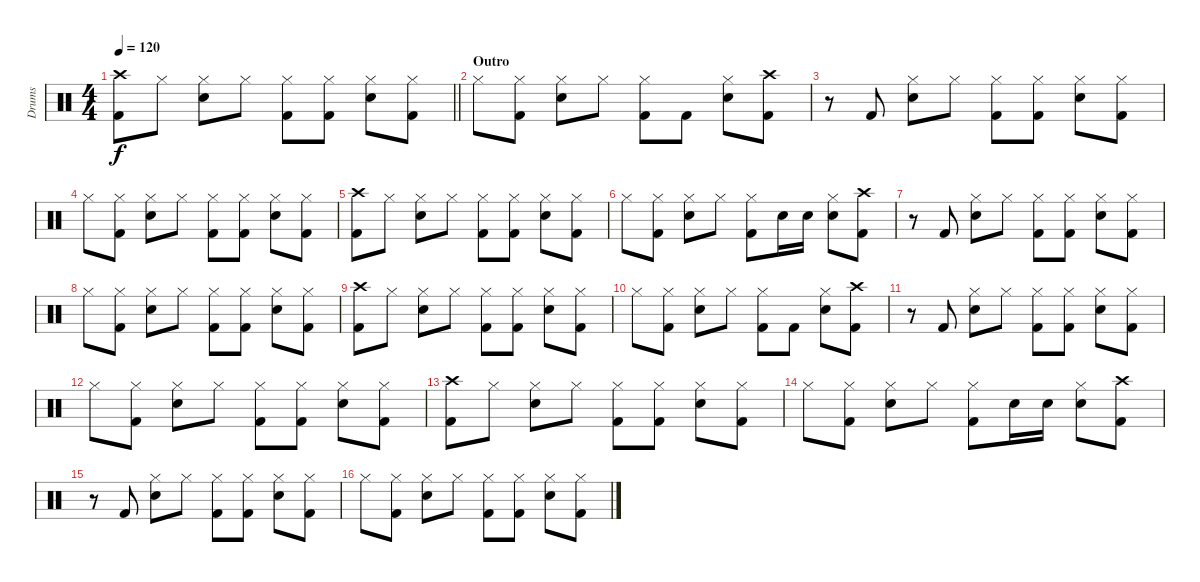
\track ("Drums" "Drums") {instrument percussion}
\staff {score}
\articulation defaults
\ts (4 4)
\tempo 120
\clef neutral
\barLineRight lightlight
\ks c
("Crash high (hit)" "Kick (hit) 2").8{dy f} "Hi-Hat (closed)".8 ("Hi-Hat (closed)" "Snare (hit) 2").8 "Hi-Hat (closed)".8 ("Hi-Hat (closed)" "Kick (hit) 2").8 ("Hi-Hat (closed)" "Kick (hit) 2").8 ("Hi-Hat (closed)" "Snare (hit) 2").8 ("Hi-Hat (closed)" "Kick (hit) 2").8 |
\section ("" "Outro")
"Hi-Hat (closed)".8 ("Hi-Hat (closed)" "Kick (hit) 2").8 ("Hi-Hat (closed)" "Snare (hit) 2").8 "Hi-Hat (closed)".8 ("Hi-Hat (closed)" "Kick (hit) 2").8 "Kick (hit) 2".8 ("Hi-Hat (closed)" "Snare (hit) 2").8 ("Crash high (hit)" "Kick (hit) 2").8 |
r.8 "Kick (hit) 2".8 ("Hi-Hat (closed)" "Snare (hit) 2").8 "Hi-Hat (closed)".8 ("Hi-Hat (closed)" "Kick (hit) 2").8 ("Hi-Hat (closed)" "Kick (hit) 2").8 ("Hi-Hat (closed)" "Snare (hit) 2").8 ("Hi-Hat (closed)" "Kick (hit) 2").8 |
"Hi-Hat (closed)".8 ("Hi-Hat (closed)" "Kick (hit) 2").8 ("Hi-Hat (closed)" "Snare (hit) 2").8 "Hi-Hat (closed)".8 ("Hi-Hat (closed)" "Kick (hit) 2").8 ("Hi-Hat (closed)" "Kick (hit) 2").8 ("Hi-Hat (closed)" "Snare (hit) 2").8 ("Hi-Hat (closed)" "Kick (hit) 2").8 |
("Crash high (hit)" "Kick (hit) 2").8 "Hi-Hat (closed)".8 ("Hi-Hat (closed)" "Snare (hit) 2").8 "Hi-Hat (closed)".8 ("Hi-Hat (closed)" "Kick (hit) 2").8 ("Hi-Hat (closed)" "Kick (hit) 2").8 ("Hi-Hat (closed)" "Snare (hit) 2").8 ("Hi-Hat (closed)" "Kick (hit) 2").8 |
"Hi-Hat (closed)".8 ("Hi-Hat (closed)" "Kick (hit) 2").8 ("Hi-Hat (closed)" "Snare (hit) 2").8 "Hi-Hat (closed)".8 ("Hi-Hat (closed)" "Kick (hit) 2").8 "Snare (hit) 2".16 "Snare (hit) 2".16 ("Hi-Hat (closed)" "Snare (hit) 2").8 ("Crash high (hit)" "Kick (hit) 2").8 |
r.8 "Kick (hit) 2".8 ("Hi-Hat (closed)" "Snare (hit) 2").8 "Hi-Hat (closed)".8 ("Hi-Hat (closed)" "Kick (hit) 2").8 ("Hi-Hat (closed)" "Kick (hit) 2").8 ("Hi-Hat (closed)" "Snare (hit) 2").8 ("Hi-Hat (closed)" "Kick (hit) 2").8 |
"Hi-Hat (closed)".8 ("Hi-Hat (closed)" "Kick (hit) 2").8 ("Hi-Hat (closed)" "Snare (hit) 2").8 "Hi-Hat (closed)".8 ("Hi-Hat (closed)" "Kick (hit) 2").8 ("Hi-Hat (closed)" "Kick (hit) 2").8 ("Hi-Hat (closed)" "Snare (hit) 2").8 ("Hi-Hat (closed)" "Kick (hit) 2").8 |
("Crash high (hit)" "Kick (hit) 2").8 "Hi-Hat (closed)".8 ("Hi-Hat (closed)" "Snare (hit) 2").8 "Hi-Hat (closed)".8 ("Hi-Hat (closed)" "Kick (hit) 2").8 ("Hi-Hat (closed)" "Kick (hit) 2").8 ("Hi-Hat (closed)" "Snare (hit) 2").8 ("Hi-Hat (closed)" "Kick (hit) 2").8 |
"Hi-Hat (closed)".8 ("Hi-Hat (closed)" "Kick (hit) 2").8 ("Hi-Hat (closed)" "Snare (hit) 2").8 "Hi-Hat (closed)".8 ("Hi-Hat (closed)" "Kick (hit) 2").8 "Kick (hit) 2".8 ("Hi-Hat (closed)" "Snare (hit) 2").8 ("Crash high (hit)" "Kick (hit) 2").8 |
r.8 "Kick (hit) 2".8 ("Hi-Hat (closed)" "Snare (hit) 2").8 "Hi-Hat (closed)".8 ("Hi-Hat (closed)" "Kick (hit) 2").8 ("Hi-Hat (closed)" "Kick (hit) 2").8 ("Hi-Hat (closed)" "Snare (hit) 2").8 ("Hi-Hat (closed)" "Kick (hit) 2").8 |
"Hi-Hat (closed)".8 ("Hi-Hat (closed)" "Kick (hit) 2").8 ("Hi-Hat (closed)" "Snare (hit) 2").8 "Hi-Hat (closed)".8 ("Hi-Hat (closed)" "Kick (hit) 2").8 ("Hi-Hat (closed)" "Kick (hit) 2").8 ("Hi-Hat (closed)" "Snare (hit) 2").8 ("Hi-Hat (closed)" "Kick (hit) 2").8 |
("Crash high (hit)" "Kick (hit) 2").8 "Hi-Hat (closed)".8 ("Hi-Hat (closed)" "Snare (hit) 2").8 "Hi-Hat (closed)".8 ("Hi-Hat (closed)" "Kick (hit) 2").8 ("Hi-Hat (closed)" "Kick (hit) 2").8 ("Hi-Hat (closed)" "Snare (hit) 2").8 ("Hi-Hat (closed)" "Kick (hit) 2").8 |
"Hi-Hat (closed)".8 ("Hi-Hat (closed)" "Kick (hit) 2").8 ("Hi-Hat (closed)" "Snare (hit) 2").8 "Hi-Hat (closed)".8 ("Hi-Hat (closed)" "Kick (hit) 2").8 "Snare (hit) 2".16 "Snare (hit) 2".16 ("Hi-Hat (closed)" "Snare (hit) 2").8 ("Crash high (hit)" "Kick (hit) 2").8 |
r.8 "Kick (hit) 2".8 ("Hi-Hat (closed)" "Snare (hit) 2").8 "Hi-Hat (closed)".8 ("Hi-Hat (closed)" "Kick (hit) 2").8 ("Hi-Hat (closed)" "Kick (hit) 2").8 ("Hi-Hat (closed)" "Snare (hit) 2").8 ("Hi-Hat (closed)" "Kick (hit) 2").8 |
"Hi-Hat (closed)".8 ("Hi-Hat (closed)" "Kick (hit) 2").8 ("Hi-Hat (closed)" "Snare (hit) 2").8 "Hi-Hat (closed)".8 ("Hi-Hat (closed)" "Kick (hit) 2").8 ("Hi-Hat (closed)" "Kick (hit) 2").8 ("Hi-Hat (closed)" "Snare (hit) 2").8 ("Hi-Hat (closed)" "Kick (hit) 2").8
